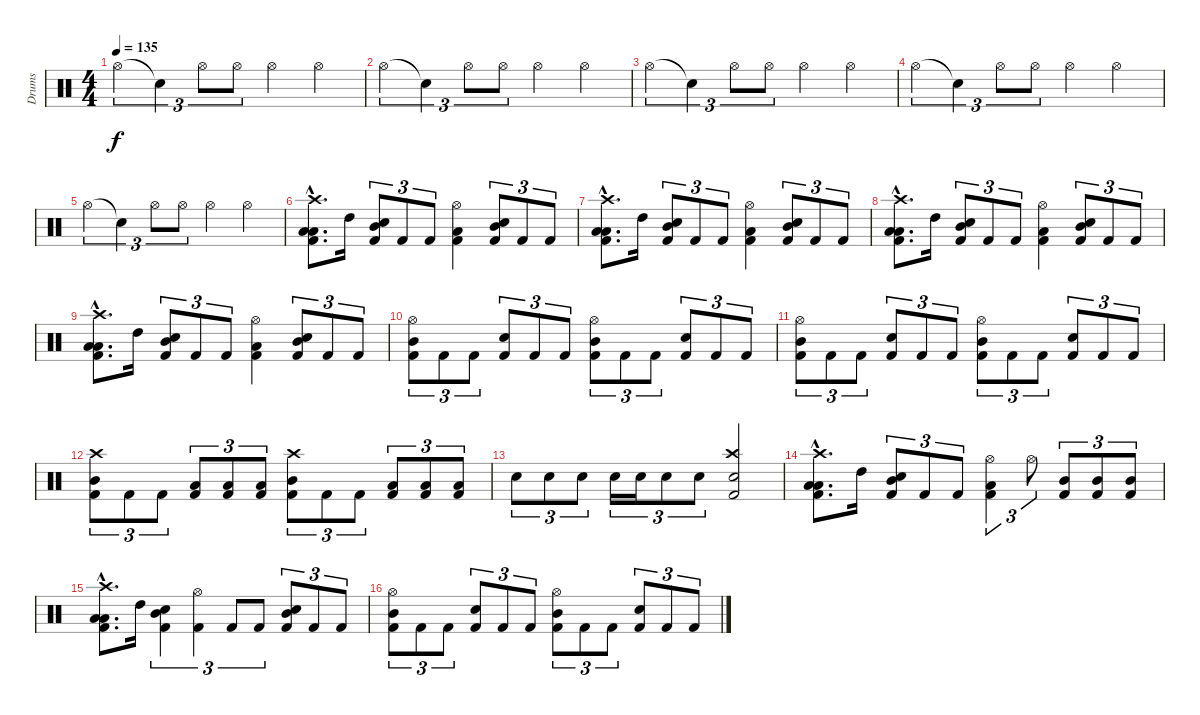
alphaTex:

\track ("Drums" "Drums") {instrument percussion}
\staff {score}
\articulation defaults
\ts (4 4)
\tempo 135
\clef neutral
\ks c "Hi-Hat (open)".4{tu (3 2) dy f volume 10} "Snare (hit)"{t}.4{tu (3 2)} "Hi-Hat (open)".8{tu (3 2)} "Hi-Hat (open)".8{tu (3 2)} "Hi-Hat (open)".4 "Hi-Hat (open)".4
|
"Hi-Hat (open)".4{tu (3 2) volume 10} "Snare (hit)"{t}.4{tu (3 2)} "Hi-Hat (open)".8{tu (3 2)} "Hi-Hat (open)".8{tu (3 2)} "Hi-Hat (open)".4 "Hi-Hat (open)".4 |
"Hi-Hat (open)".4{tu (3 2) volume 10} "Snare (hit)"{t}.4{tu (3 2)} "Hi-Hat (open)".8{tu (3 2)} "Hi-Hat (open)".8{tu (3 2)} "Hi-Hat (open)".4 "Hi-Hat (open)".4 |
"Hi-Hat (open)".4{tu (3 2) volume 10} "Snare (hit)"{t}.4{tu (3 2)} "Hi-Hat (open)".8{tu (3 2)} "Hi-Hat (open)".8{tu (3 2)} "Hi-Hat (open)".4 "Hi-Hat (open)".4 |
"Hi-Hat (open)".4{tu (3 2) volume 10} "Snare (hit)"{t}.4{tu (3 2)} "Hi-Hat (open)".8{tu (3 2)} "Hi-Hat (open)".8{tu (3 2)} "Hi-Hat (open)".4 "Hi-Hat (open)".4 |
("Crash high (hit)"{hac} "Low Tom (hit)"{hac} "Low Tom (hit)"{hac} "Kick (hit) 2"{hac}).8{d volume 16} "High Tom (hit)".16 ("Mid Tom (hit)" "Snare (hit) 2" "Kick (hit) 2").8{tu (3 2)} "Kick (hit) 2".8{tu (3 2)} "Kick (hit) 2".8{tu (3 2)} ("Hi-Hat (open)" "Low Tom (hit)" "Kick (hit) 2").4 ("Mid Tom (hit)" "Snare (hit) 2" "Kick (hit) 2").8{tu (3 2)} "Kick (hit) 2".8{tu (3 2)} "Kick (hit) 2".8{tu (3 2)} |
("Crash high (hit)"{hac} "Low Tom (hit)"{hac} "Low Tom (hit)"{hac} "Kick (hit) 2"{hac}).8{d} "High Tom (hit)".16 ("Mid Tom (hit)" "Snare (hit) 2" "Kick (hit) 2").8{tu (3 2)} "Kick (hit) 2".8{tu (3 2)} "Kick (hit) 2".8{tu (3 2)} ("Hi-Hat (open)" "Low Tom (hit)" "Kick (hit) 2").4 ("Mid Tom (hit)" "Snare (hit) 2" "Kick (hit) 2").8{tu (3 2)} "Kick (hit) 2".8{tu (3 2)} "Kick (hit) 2".8{tu (3 2)} |
("Crash high (hit)"{hac} "Low Tom (hit)"{hac} "Low Tom (hit)"{hac} "Kick (hit) 2"{hac}).8{d} "High Tom (hit)".16 ("Mid Tom (hit)" "Snare (hit) 2" "Kick (hit) 2").8{tu (3 2)} "Kick (hit) 2".8{tu (3 2)} "Kick (hit) 2".8{tu (3 2)} ("Hi-Hat (open)" "Low Tom (hit)" "Kick (hit) 2").4 ("Mid Tom (hit)" "Snare (hit) 2" "Kick (hit) 2").8{tu (3 2)} "Kick (hit) 2".8{tu (3 2)} "Kick (hit) 2".8{tu (3 2)} |
("Crash high (hit)"{hac} "Low Tom (hit)"{hac} "Low Tom (hit)"{hac} "Kick (hit) 2"{hac}).8{d} "High Tom (hit)".16 ("Mid Tom (hit)" "Snare (hit) 2" "Kick (hit) 2").8{tu (3 2)} "Kick (hit) 2".8{tu (3 2)} "Kick (hit) 2".8{tu (3 2)} ("Hi-Hat (open)" "Low Tom (hit)" "Kick (hit) 2").4 ("Mid Tom (hit)" "Snare (hit) 2" "Kick (hit) 2").8{tu (3 2)} "Kick (hit) 2".8{tu (3 2)} "Kick (hit) 2".8{tu (3 2)} |
("Hi-Hat (open)" "Mid Tom (hit)" "Kick (hit) 2").8{tu (3 2)} "Kick (hit) 2".8{tu (3 2)} "Kick (hit) 2".8{tu (3 2)} ("Snare (hit) 2" "Kick (hit) 2").8{tu (3 2)} "Kick (hit) 2".8{tu (3 2)} "Kick (hit) 2".8{tu (3 2)} ("Hi-Hat (open)" "Mid Tom (hit)" "Kick (hit) 2").8{tu (3 2)} "Kick (hit) 2".8{tu (3 2)} "Kick (hit) 2".8{tu (3 2)} ("Snare (hit) 2" "Kick (hit) 2").8{tu (3 2)} "Kick (hit) 2".8{tu (3 2)} "Kick (hit) 2".8{tu (3 2)} |
("Hi-Hat (open)" "Mid Tom (hit)" "Kick (hit) 2").8{tu (3 2)} "Kick (hit) 2".8{tu (3 2)} "Kick (hit) 2".8{tu (3 2)} ("Snare (hit) 2" "Kick (hit) 2").8{tu (3 2)} "Kick (hit) 2".8{tu (3 2)} "Kick (hit) 2".8{tu (3 2)} ("Hi-Hat (open)" "Mid Tom (hit)" "Kick (hit) 2").8{tu (3 2)} "Kick (hit) 2".8{tu (3 2)} "Kick (hit) 2".8{tu (3 2)} ("Snare (hit) 2" "Kick (hit) 2").8{tu (3 2)} "Kick (hit) 2".8{tu (3 2)} "Kick (hit) 2".8{tu (3 2)} |
("Crash high (hit)" "Mid Tom (hit)" "Kick (hit) 2").8{tu (3 2)} "Kick (hit) 2".8{tu (3 2)} "Kick (hit) 2".8{tu (3 2)} ("Low Tom (hit)" "Kick (hit) 2").8{tu (3 2)} ("Low Tom (hit)" "Kick (hit) 2").8{tu (3 2)} ("Low Tom (hit)" "Kick (hit) 2").8{tu (3 2)} ("Crash high (hit)" "Mid Tom (hit)" "Kick (hit) 2").8{tu (3 2)} "Kick (hit) 2".8{tu (3 2)} "Kick (hit) 2".8{tu (3 2)} ("Low Tom (hit)" "Kick (hit) 2").8{tu (3 2)} ("Low Tom (hit)" "Kick (hit) 2").8{tu (3 2)} ("Low Tom (hit)" "Kick (hit) 2").8{tu (3 2)} |
"Snare (hit) 2".8{tu (3 2)} "Snare (hit) 2".8{tu (3 2)} "Snare (hit) 2".8{tu (3 2)} "Snare (hit) 2".16{tu (3 2)} "Snare (hit) 2".16{tu (3 2)} "Snare (hit) 2".8{tu (3 2)} "Snare (hit) 2".8{tu (3 2)} ("Crash high (hit)" "Snare (hit) 2" "Kick (hit) 2").2 |
("Crash high (hit)"{hac} "Low Tom (hit)"{hac} "Low Tom (hit)"{hac} "Kick (hit) 2"{hac}).8{d} "High Tom (hit)".16 ("Mid Tom (hit)" "Snare (hit) 2" "Kick (hit) 2").8{tu (3 2)} "Kick (hit) 2".8{tu (3 2)} "Kick (hit) 2".8{tu (3 2)} ("Hi-Hat (open)" "Low Tom (hit)" "Kick (hit) 2").4{tu (3 2)} "Hi-Hat (open)".8{tu (3 2)} ("Mid Tom (hit)" "Kick (hit) 2").8{tu (3 2)} ("Mid Tom (hit)" "Kick (hit) 2").8{tu (3 2)} ("Mid Tom (hit)" "Kick (hit) 2").8{tu (3 2)} |
("Crash high (hit)"{hac} "Low Tom (hit)"{hac} "Low Tom (hit)"{hac} "Kick (hit) 2"{hac}).8{d} "High Tom (hit)".16 ("Mid Tom (hit)" "Snare (hit) 2" "Kick (hit) 2").4{tu (3 2)} ("Hi-Hat (open)" "Kick (hit) 2").4{tu (3 2)} "Kick (hit) 2".8{tu (3 2)} "Kick (hit) 2".8{tu (3 2)} ("Mid Tom (hit)" "Snare (hit) 2" "Kick (hit) 2").8{tu (3 2)} "Kick (hit) 2".8{tu (3 2)} "Kick (hit) 2".8{tu (3 2)} |
("Hi-Hat (open)" "Mid Tom (hit)" "Kick (hit) 2").8{tu (3 2)} "Kick (hit) 2".8{tu (3 2)} "Kick (hit) 2".8{tu (3 2)} ("Snare (hit) 2" "Kick (hit) 2").8{tu (3 2)} "Kick (hit) 2".8{tu (3 2)} "Kick (hit) 2".8{tu (3 2)} ("Hi-Hat (open)" "Mid Tom (hit)" "Kick (hit) 2").8{tu (3 2)} "Kick (hit) 2".8{tu (3 2)} "Kick (hit) 2".8{tu (3 2)} ("Snare (hit) 2" "Kick (hit) 2").8{tu (3 2)} "Kick (hit) 2".8{tu (3 2)} "Kick (hit) 2".8{tu (3 2)}
